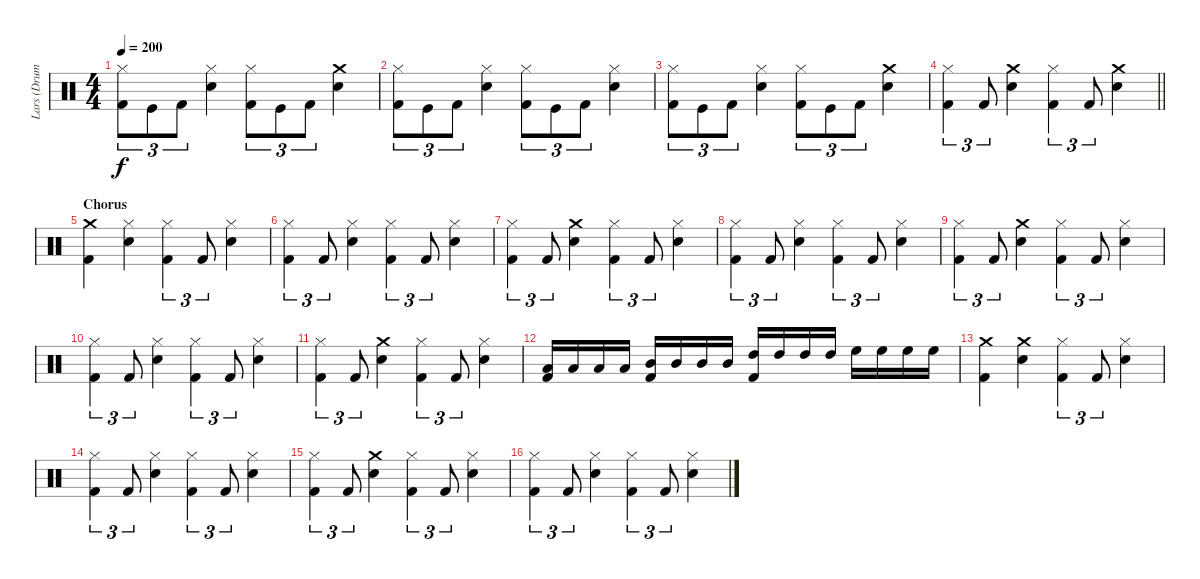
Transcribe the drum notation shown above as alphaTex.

\track ("Lars (Drums)" "Lars (Drum") {instrument percussion}
\staff {score}
\articulation defaults
\ts (4 4)
\tempo 200
\clef neutral
\ks c
("Hi-Hat (closed)" "Kick (hit) 2").8{tu (3 2) dy f} "Kick (hit)".8{tu (3 2)} "Kick (hit) 2".8{tu (3 2)} ("Snare (hit) 2" "Hi-Hat (closed)").4 ("Hi-Hat (closed)" "Kick (hit) 2").8{tu (3 2)} "Kick (hit)".8{tu (3 2)} "Kick (hit) 2".8{tu (3 2)} ("Crash medium (hit)" "Snare (hit) 2").4 |
("Hi-Hat (closed)" "Kick (hit) 2").8{tu (3 2)} "Kick (hit)".8{tu (3 2)} "Kick (hit) 2".8{tu (3 2)} ("Snare (hit) 2" "Hi-Hat (closed)").4 ("Hi-Hat (closed)" "Kick (hit) 2").8{tu (3 2)} "Kick (hit)".8{tu (3 2)} "Kick (hit) 2".8{tu (3 2)} ("Hi-Hat (closed)" "Snare (hit) 2").4 |
("Hi-Hat (closed)" "Kick (hit) 2").8{tu (3 2)} "Kick (hit)".8{tu (3 2)} "Kick (hit) 2".8{tu (3 2)} ("Snare (hit) 2" "Hi-Hat (closed)").4 ("Hi-Hat (closed)" "Kick (hit) 2").8{tu (3 2)} "Kick (hit)".8{tu (3 2)} "Kick (hit) 2".8{tu (3 2)} ("Crash medium (hit)" "Snare (hit) 2").4 |
\barLineRight lightlight
("Hi-Hat (closed)" "Kick (hit) 2").4{tu (3 2)} "Kick (hit) 2".8{tu (3 2)} ("Crash medium (hit)" "Snare (hit) 2").4 ("Hi-Hat (closed)" "Kick (hit) 2").4{tu (3 2)} "Kick (hit) 2".8{tu (3 2)} ("Crash medium (hit)" "Snare (hit) 2").4 |
\section ("" "Chorus")
("Kick (hit) 2" "Crash medium (hit)").4 ("Hi-Hat (closed)" "Snare (hit) 2").4 ("Hi-Hat (closed)" "Kick (hit) 2").4{tu (3 2)} "Kick (hit) 2".8{tu (3 2)} ("Snare (hit) 2" "Hi-Hat (closed)").4 |
("Kick (hit) 2" "Hi-Hat (closed)").4{tu (3 2)} "Kick (hit) 2".8{tu (3 2)} ("Snare (hit) 2" "Hi-Hat (closed)").4 ("Kick (hit) 2" "Hi-Hat (closed)").4{tu (3 2)} "Kick (hit) 2".8{tu (3 2)} ("Snare (hit) 2" "Hi-Hat (closed)").4 |
("Kick (hit) 2" "Hi-Hat (closed)").4{tu (3 2)} "Kick (hit) 2".8{tu (3 2)} ("Crash medium (hit)" "Snare (hit) 2").4 ("Kick (hit) 2" "Hi-Hat (closed)").4{tu (3 2)} "Kick (hit) 2".8{tu (3 2)} ("Snare (hit) 2" "Hi-Hat (closed)").4 |
("Kick (hit) 2" "Hi-Hat (closed)").4{tu (3 2)} "Kick (hit) 2".8{tu (3 2)} ("Snare (hit) 2" "Hi-Hat (closed)").4 ("Kick (hit) 2" "Hi-Hat (closed)").4{tu (3 2)} "Kick (hit) 2".8{tu (3 2)} ("Snare (hit) 2" "Hi-Hat (closed)").4 |
("Kick (hit) 2" "Hi-Hat (closed)").4{tu (3 2)} "Kick (hit) 2".8{tu (3 2)} ("Crash medium (hit)" "Snare (hit) 2").4 ("Kick (hit) 2" "Hi-Hat (closed)").4{tu (3 2)} "Kick (hit) 2".8{tu (3 2)} ("Snare (hit) 2" "Hi-Hat (closed)").4 |
("Kick (hit) 2" "Hi-Hat (closed)").4{tu (3 2)} "Kick (hit) 2".8{tu (3 2)} ("Snare (hit) 2" "Hi-Hat (closed)").4 ("Kick (hit) 2" "Hi-Hat (closed)").4{tu (3 2)} "Kick (hit) 2".8{tu (3 2)} ("Snare (hit) 2" "Hi-Hat (closed)").4 |
("Kick (hit) 2" "Hi-Hat (closed)").4{tu (3 2)} "Kick (hit) 2".8{tu (3 2)} ("Crash medium (hit)" "Snare (hit) 2").4 ("Kick (hit) 2" "Hi-Hat (closed)").4{tu (3 2)} "Kick (hit) 2".8{tu (3 2)} ("Snare (hit) 2" "Hi-Hat (closed)").4 |
("Low Tom (hit)" "Kick (hit) 2").16 "Low Tom (hit)".16 "Low Tom (hit)".16 "Low Tom (hit)".16 ("Mid Tom (hit)" "Kick (hit) 2").16 "Mid Tom (hit)".16 "Mid Tom (hit)".16 "Mid Tom (hit)".16 ("High Tom (hit)" "Kick (hit) 2").16 "High Tom (hit)".16 "High Tom (hit)".16 "High Tom (hit)".16 "High Floor Tom (hit)".16 "High Floor Tom (hit)".16 "High Floor Tom (hit)".16 "High Floor Tom (hit)".16 |
("Kick (hit) 2" "Crash medium (hit)").4 ("Snare (hit) 2" "Crash medium (hit)").4 ("Hi-Hat (closed)" "Kick (hit) 2").4{tu (3 2)} "Kick (hit) 2".8{tu (3 2)} ("Hi-Hat (closed)" "Snare (hit) 2").4 |
("Kick (hit) 2" "Hi-Hat (closed)").4{tu (3 2)} "Kick (hit) 2".8{tu (3 2)} ("Snare (hit) 2" "Hi-Hat (closed)").4 ("Kick (hit) 2" "Hi-Hat (closed)").4{tu (3 2)} "Kick (hit) 2".8{tu (3 2)} ("Snare (hit) 2" "Hi-Hat (closed)").4 |
("Kick (hit) 2" "Hi-Hat (closed)").4{tu (3 2)} "Kick (hit) 2".8{tu (3 2)} ("Crash medium (hit)" "Snare (hit) 2").4 ("Kick (hit) 2" "Hi-Hat (closed)").4{tu (3 2)} "Kick (hit) 2".8{tu (3 2)} ("Snare (hit) 2" "Hi-Hat (closed)").4 |
("Kick (hit) 2" "Hi-Hat (closed)").4{tu (3 2)} "Kick (hit) 2".8{tu (3 2)} ("Snare (hit) 2" "Hi-Hat (closed)").4 ("Kick (hit) 2" "Hi-Hat (closed)").4{tu (3 2)} "Kick (hit) 2".8{tu (3 2)} ("Snare (hit) 2" "Hi-Hat (closed)").4
